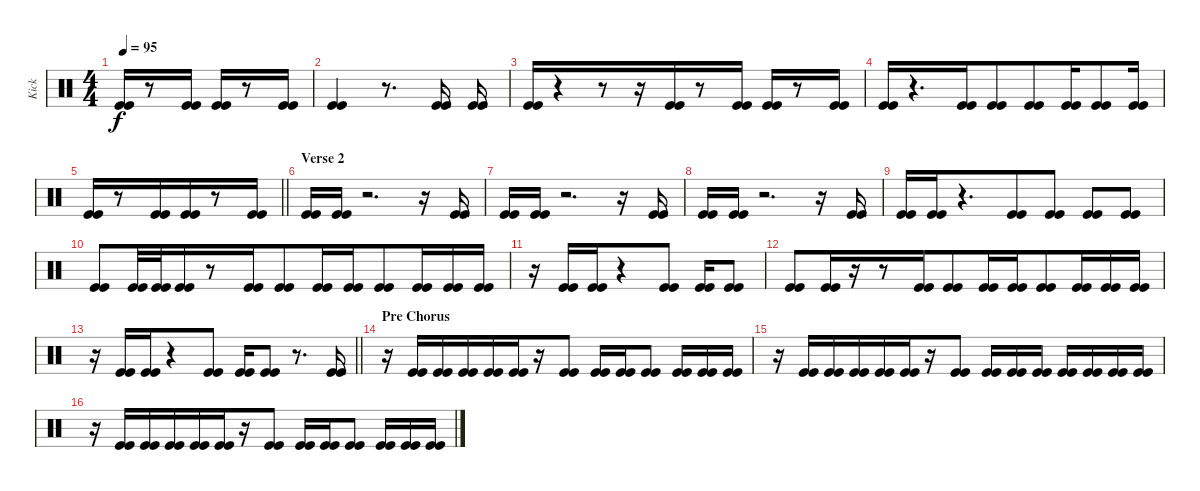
\track ("Kick" "Kick") {instrument percussion}
\staff {score}
\articulation defaults
\ts (4 4)
\tempo 95
\clef neutral
\ks c
("Kick (hit)" "Kick (hit)").16{dy f} r.8 ("Kick (hit)" "Kick (hit)").16 ("Kick (hit)" "Kick (hit)").16 r.8{beam merge} ("Kick (hit)" "Kick (hit)").16 |
("Kick (hit)" "Kick (hit)").4 r.8{d} ("Kick (hit)" "Kick (hit)").16 ("Kick (hit)" "Kick (hit)").16 |
("Kick (hit)" "Kick (hit)").16{beam merge} r.4{beam merge} r.8 r.16{beam merge} ("Kick (hit)" "Kick (hit)").16 r.8{beam merge} ("Kick (hit)" "Kick (hit)").16 ("Kick (hit)" "Kick (hit)").16 r.8{beam merge} ("Kick (hit)" "Kick (hit)").16 |
("Kick (hit)" "Kick (hit)").16{beam merge} r.4{d beam merge} ("Kick (hit)" "Kick (hit)").16{beam merge} ("Kick (hit)" "Kick (hit)").8 ("Kick (hit)" "Kick (hit)").8{beam merge} ("Kick (hit)" "Kick (hit)").16 ("Kick (hit)" "Kick (hit)").8{beam merge} ("Kick (hit)" "Kick (hit)").16 |
\barLineRight lightlight
("Kick (hit)" "Kick (hit)").16{beam merge} r.8 ("Kick (hit)" "Kick (hit)").16{beam merge} ("Kick (hit)" "Kick (hit)").16 r.8 ("Kick (hit)" "Kick (hit)").16 |
\section ("" "Verse 2")
("Kick (hit)" "Kick (hit)").16{beam merge} ("Kick (hit)" "Kick (hit)").16 r.2{d} r.16 ("Kick (hit)" "Kick (hit)").16 |
("Kick (hit)" "Kick (hit)").16{beam merge} ("Kick (hit)" "Kick (hit)").16 r.2{d} r.16 ("Kick (hit)" "Kick (hit)").16 |
("Kick (hit)" "Kick (hit)").16{beam merge} ("Kick (hit)" "Kick (hit)").16 r.2{d} r.16 ("Kick (hit)" "Kick (hit)").16 |
("Kick (hit)" "Kick (hit)").16 ("Kick (hit)" "Kick (hit)").16{beam merge} r.4{d} ("Kick (hit)" "Kick (hit)").8{beam merge} ("Kick (hit)" "Kick (hit)").8 ("Kick (hit)" "Kick (hit)").8 ("Kick (hit)" "Kick (hit)").8 |
("Kick (hit)" "Kick (hit)").8 ("Kick (hit)" "Kick (hit)").32 ("Kick (hit)" "Kick (hit)").32{beam merge} ("Kick (hit)" "Kick (hit)").16{beam merge} r.8{beam merge} ("Kick (hit)" "Kick (hit)").16 ("Kick (hit)" "Kick (hit)").8{beam merge} ("Kick (hit)" "Kick (hit)").16 ("Kick (hit)" "Kick (hit)").16{beam merge} ("Kick (hit)" "Kick (hit)").8{beam merge} ("Kick (hit)" "Kick (hit)").16 ("Kick (hit)" "Kick (hit)").16 ("Kick (hit)" "Kick (hit)").16 |
r.16 ("Kick (hit)" "Kick (hit)").16 ("Kick (hit)" "Kick (hit)").16{beam merge} r.4 ("Kick (hit)" "Kick (hit)").8 ("Kick (hit)" "Kick (hit)").16{beam merge} ("Kick (hit)" "Kick (hit)").8 |
("Kick (hit)" "Kick (hit)").8 ("Kick (hit)" "Kick (hit)").16{beam merge} r.16{beam merge} r.8{beam merge} ("Kick (hit)" "Kick (hit)").16 ("Kick (hit)" "Kick (hit)").8{beam merge} ("Kick (hit)" "Kick (hit)").16 ("Kick (hit)" "Kick (hit)").16{beam merge} ("Kick (hit)" "Kick (hit)").8{beam merge} ("Kick (hit)" "Kick (hit)").16 ("Kick (hit)" "Kick (hit)").16 ("Kick (hit)" "Kick (hit)").16 |
\barLineRight lightlight
r.16 ("Kick (hit)" "Kick (hit)").16 ("Kick (hit)" "Kick (hit)").16{beam merge} r.4 ("Kick (hit)" "Kick (hit)").8 ("Kick (hit)" "Kick (hit)").16{beam merge} ("Kick (hit)" "Kick (hit)").8 r.8{d} ("Kick (hit)" "Kick (hit)").16 |
\section ("" "Pre Chorus")
r.16 ("Kick (hit)" "Kick (hit)").16{beam merge} ("Kick (hit)" "Kick (hit)").16 ("Kick (hit)" "Kick (hit)").16{beam merge} ("Kick (hit)" "Kick (hit)").16{beam merge} ("Kick (hit)" "Kick (hit)").16{beam merge} r.16 ("Kick (hit)" "Kick (hit)").8 ("Kick (hit)" "Kick (hit)").16 ("Kick (hit)" "Kick (hit)").16{beam merge} ("Kick (hit)" "Kick (hit)").8 ("Kick (hit)" "Kick (hit)").16{beam merge} ("Kick (hit)" "Kick (hit)").16 ("Kick (hit)" "Kick (hit)").16 |
r.16 ("Kick (hit)" "Kick (hit)").16 ("Kick (hit)" "Kick (hit)").16{beam merge} ("Kick (hit)" "Kick (hit)").16{beam merge} ("Kick (hit)" "Kick (hit)").16 ("Kick (hit)" "Kick (hit)").16 r.16 ("Kick (hit)" "Kick (hit)").8 ("Kick (hit)" "Kick (hit)").16 ("Kick (hit)" "Kick (hit)").16 ("Kick (hit)" "Kick (hit)").16 ("Kick (hit)" "Kick (hit)").16{beam merge} ("Kick (hit)" "Kick (hit)").16 ("Kick (hit)" "Kick (hit)").16 ("Kick (hit)" "Kick (hit)").16 |
r.16{beam merge} ("Kick (hit)" "Kick (hit)").16 ("Kick (hit)" "Kick (hit)").16{beam merge} ("Kick (hit)" "Kick (hit)").16{beam merge} ("Kick (hit)" "Kick (hit)").16 ("Kick (hit)" "Kick (hit)").16 r.16 ("Kick (hit)" "Kick (hit)").8 ("Kick (hit)" "Kick (hit)").16 ("Kick (hit)" "Kick (hit)").16 ("Kick (hit)" "Kick (hit)").8 ("Kick (hit)" "Kick (hit)").16{beam merge} ("Kick (hit)" "Kick (hit)").16 ("Kick (hit)" "Kick (hit)").16
